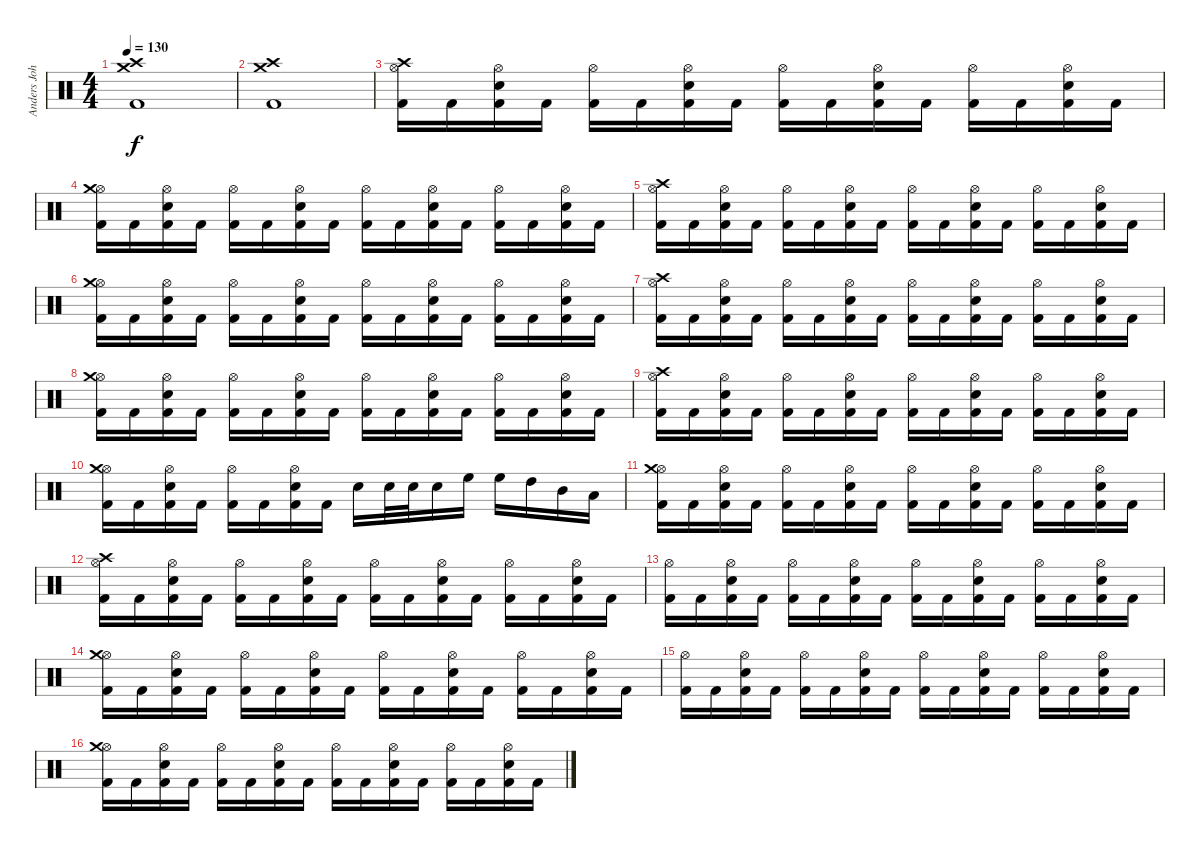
\track ("Anders Johansson - Drums" "Anders Joh") {instrument percussion}
\staff {score}
\articulation defaults
\ts (4 4)
\tempo 130
\clef neutral
\ks c
("Crash high (hit)" "Crash medium (hit)" "Kick (hit) 2").1{dy f} |
("Crash high (hit)" "Crash medium (hit)" "Kick (hit) 2").1 |
("Hi-Hat (open)" "Kick (hit) 2" "Crash high (hit)").16 "Kick (hit) 2".16 ("Hi-Hat (open)" "Kick (hit) 2" "Electric Snare (hit)").16 "Kick (hit) 2".16 ("Hi-Hat (open)" "Kick (hit) 2").16 "Kick (hit) 2".16 ("Hi-Hat (open)" "Kick (hit) 2" "Electric Snare (hit)").16 "Kick (hit) 2".16 ("Hi-Hat (open)" "Kick (hit) 2").16 "Kick (hit) 2".16 ("Hi-Hat (open)" "Kick (hit) 2" "Electric Snare (hit)").16 "Kick (hit) 2".16 ("Hi-Hat (open)" "Kick (hit) 2").16 "Kick (hit) 2".16 ("Hi-Hat (open)" "Kick (hit) 2" "Electric Snare (hit)").16 "Kick (hit) 2".16 |
("Hi-Hat (open)" "Kick (hit) 2" "Crash medium (hit)").16 "Kick (hit) 2".16 ("Hi-Hat (open)" "Kick (hit) 2" "Electric Snare (hit)").16 "Kick (hit) 2".16 ("Hi-Hat (open)" "Kick (hit) 2").16 "Kick (hit) 2".16 ("Hi-Hat (open)" "Kick (hit) 2" "Electric Snare (hit)").16 "Kick (hit) 2".16 ("Hi-Hat (open)" "Kick (hit) 2").16 "Kick (hit) 2".16 ("Hi-Hat (open)" "Kick (hit) 2" "Electric Snare (hit)").16 "Kick (hit) 2".16 ("Hi-Hat (open)" "Kick (hit) 2").16 "Kick (hit) 2".16 ("Hi-Hat (open)" "Kick (hit) 2" "Electric Snare (hit)").16 "Kick (hit) 2".16 |
("Hi-Hat (open)" "Kick (hit) 2" "Crash high (hit)").16 "Kick (hit) 2".16 ("Hi-Hat (open)" "Kick (hit) 2" "Electric Snare (hit)").16 "Kick (hit) 2".16 ("Hi-Hat (open)" "Kick (hit) 2").16 "Kick (hit) 2".16 ("Hi-Hat (open)" "Kick (hit) 2" "Electric Snare (hit)").16 "Kick (hit) 2".16 ("Hi-Hat (open)" "Kick (hit) 2").16 "Kick (hit) 2".16 ("Hi-Hat (open)" "Kick (hit) 2" "Electric Snare (hit)").16 "Kick (hit) 2".16 ("Hi-Hat (open)" "Kick (hit) 2").16 "Kick (hit) 2".16 ("Hi-Hat (open)" "Kick (hit) 2" "Electric Snare (hit)").16 "Kick (hit) 2".16 |
("Hi-Hat (open)" "Kick (hit) 2" "Crash medium (hit)").16 "Kick (hit) 2".16 ("Hi-Hat (open)" "Kick (hit) 2" "Electric Snare (hit)").16 "Kick (hit) 2".16 ("Hi-Hat (open)" "Kick (hit) 2").16 "Kick (hit) 2".16 ("Hi-Hat (open)" "Kick (hit) 2" "Electric Snare (hit)").16 "Kick (hit) 2".16 ("Hi-Hat (open)" "Kick (hit) 2").16 "Kick (hit) 2".16 ("Hi-Hat (open)" "Kick (hit) 2" "Electric Snare (hit)").16 "Kick (hit) 2".16 ("Hi-Hat (open)" "Kick (hit) 2").16 "Kick (hit) 2".16 ("Hi-Hat (open)" "Kick (hit) 2" "Electric Snare (hit)").16 "Kick (hit) 2".16 |
("Hi-Hat (open)" "Kick (hit) 2" "Crash high (hit)").16 "Kick (hit) 2".16 ("Hi-Hat (open)" "Kick (hit) 2" "Electric Snare (hit)").16 "Kick (hit) 2".16 ("Hi-Hat (open)" "Kick (hit) 2").16 "Kick (hit) 2".16 ("Hi-Hat (open)" "Kick (hit) 2" "Electric Snare (hit)").16 "Kick (hit) 2".16 ("Hi-Hat (open)" "Kick (hit) 2").16 "Kick (hit) 2".16 ("Hi-Hat (open)" "Kick (hit) 2" "Electric Snare (hit)").16 "Kick (hit) 2".16 ("Hi-Hat (open)" "Kick (hit) 2").16 "Kick (hit) 2".16 ("Hi-Hat (open)" "Kick (hit) 2" "Electric Snare (hit)").16 "Kick (hit) 2".16 |
("Hi-Hat (open)" "Kick (hit) 2" "Crash medium (hit)").16 "Kick (hit) 2".16 ("Hi-Hat (open)" "Kick (hit) 2" "Electric Snare (hit)").16 "Kick (hit) 2".16 ("Hi-Hat (open)" "Kick (hit) 2").16 "Kick (hit) 2".16 ("Hi-Hat (open)" "Kick (hit) 2" "Electric Snare (hit)").16 "Kick (hit) 2".16 ("Hi-Hat (open)" "Kick (hit) 2").16 "Kick (hit) 2".16 ("Hi-Hat (open)" "Kick (hit) 2" "Electric Snare (hit)").16 "Kick (hit) 2".16 ("Hi-Hat (open)" "Kick (hit) 2").16 "Kick (hit) 2".16 ("Hi-Hat (open)" "Kick (hit) 2" "Electric Snare (hit)").16 "Kick (hit) 2".16 |
("Hi-Hat (open)" "Kick (hit) 2" "Crash high (hit)").16 "Kick (hit) 2".16 ("Hi-Hat (open)" "Kick (hit) 2" "Electric Snare (hit)").16 "Kick (hit) 2".16 ("Hi-Hat (open)" "Kick (hit) 2").16 "Kick (hit) 2".16 ("Hi-Hat (open)" "Kick (hit) 2" "Electric Snare (hit)").16 "Kick (hit) 2".16 ("Hi-Hat (open)" "Kick (hit) 2").16 "Kick (hit) 2".16 ("Hi-Hat (open)" "Kick (hit) 2" "Electric Snare (hit)").16 "Kick (hit) 2".16 ("Hi-Hat (open)" "Kick (hit) 2").16 "Kick (hit) 2".16 ("Hi-Hat (open)" "Kick (hit) 2" "Electric Snare (hit)").16 "Kick (hit) 2".16 |
("Hi-Hat (open)" "Kick (hit) 2" "Crash medium (hit)").16 "Kick (hit) 2".16 ("Hi-Hat (open)" "Kick (hit) 2" "Electric Snare (hit)").16 "Kick (hit) 2".16 ("Hi-Hat (open)" "Kick (hit) 2").16 "Kick (hit) 2".16 ("Hi-Hat (open)" "Kick (hit) 2" "Electric Snare (hit)").16 "Kick (hit) 2".16 "Electric Snare (hit)".16 "Electric Snare (hit)".32 "Electric Snare (hit)".32 "Electric Snare (hit)".16 "High Floor Tom (hit)".16 "High Floor Tom (hit)".16 "High Tom (hit)".16 "Mid Tom (hit)".16 "Low Tom (hit)".16 |
("Hi-Hat (open)" "Kick (hit) 2" "Crash medium (hit)").16 "Kick (hit) 2".16 ("Hi-Hat (open)" "Kick (hit) 2" "Electric Snare (hit)").16 "Kick (hit) 2".16 ("Hi-Hat (open)" "Kick (hit) 2").16 "Kick (hit) 2".16 ("Hi-Hat (open)" "Kick (hit) 2" "Electric Snare (hit)").16 "Kick (hit) 2".16 ("Hi-Hat (open)" "Kick (hit) 2").16 "Kick (hit) 2".16 ("Hi-Hat (open)" "Kick (hit) 2" "Electric Snare (hit)").16 "Kick (hit) 2".16 ("Hi-Hat (open)" "Kick (hit) 2").16 "Kick (hit) 2".16 ("Hi-Hat (open)" "Kick (hit) 2" "Electric Snare (hit)").16 "Kick (hit) 2".16 |
("Hi-Hat (open)" "Kick (hit) 2" "Crash high (hit)").16 "Kick (hit) 2".16 ("Hi-Hat (open)" "Kick (hit) 2" "Electric Snare (hit)").16 "Kick (hit) 2".16 ("Hi-Hat (open)" "Kick (hit) 2").16 "Kick (hit) 2".16 ("Hi-Hat (open)" "Kick (hit) 2" "Electric Snare (hit)").16 "Kick (hit) 2".16 ("Hi-Hat (open)" "Kick (hit) 2").16 "Kick (hit) 2".16 ("Hi-Hat (open)" "Kick (hit) 2" "Electric Snare (hit)").16 "Kick (hit) 2".16 ("Hi-Hat (open)" "Kick (hit) 2").16 "Kick (hit) 2".16 ("Hi-Hat (open)" "Kick (hit) 2" "Electric Snare (hit)").16 "Kick (hit) 2".16 |
("Hi-Hat (open)" "Kick (hit) 2").16 "Kick (hit) 2".16 ("Hi-Hat (open)" "Kick (hit) 2" "Electric Snare (hit)").16 "Kick (hit) 2".16 ("Hi-Hat (open)" "Kick (hit) 2").16 "Kick (hit) 2".16 ("Hi-Hat (open)" "Kick (hit) 2" "Electric Snare (hit)").16 "Kick (hit) 2".16 ("Hi-Hat (open)" "Kick (hit) 2").16 "Kick (hit) 2".16 ("Hi-Hat (open)" "Kick (hit) 2" "Electric Snare (hit)").16 "Kick (hit) 2".16 ("Hi-Hat (open)" "Kick (hit) 2").16 "Kick (hit) 2".16 ("Hi-Hat (open)" "Kick (hit) 2" "Electric Snare (hit)").16 "Kick (hit) 2".16 |
("Hi-Hat (open)" "Kick (hit) 2" "Crash medium (hit)").16 "Kick (hit) 2".16 ("Hi-Hat (open)" "Kick (hit) 2" "Electric Snare (hit)").16 "Kick (hit) 2".16 ("Hi-Hat (open)" "Kick (hit) 2").16 "Kick (hit) 2".16 ("Hi-Hat (open)" "Kick (hit) 2" "Electric Snare (hit)").16 "Kick (hit) 2".16 ("Hi-Hat (open)" "Kick (hit) 2").16 "Kick (hit) 2".16 ("Hi-Hat (open)" "Kick (hit) 2" "Electric Snare (hit)").16 "Kick (hit) 2".16 ("Hi-Hat (open)" "Kick (hit) 2").16 "Kick (hit) 2".16 ("Hi-Hat (open)" "Kick (hit) 2" "Electric Snare (hit)").16 "Kick (hit) 2".16 |
("Hi-Hat (open)" "Kick (hit) 2").16 "Kick (hit) 2".16 ("Hi-Hat (open)" "Kick (hit) 2" "Electric Snare (hit)").16 "Kick (hit) 2".16 ("Hi-Hat (open)" "Kick (hit) 2").16 "Kick (hit) 2".16 ("Hi-Hat (open)" "Kick (hit) 2" "Electric Snare (hit)").16 "Kick (hit) 2".16 ("Hi-Hat (open)" "Kick (hit) 2").16 "Kick (hit) 2".16 ("Hi-Hat (open)" "Kick (hit) 2" "Electric Snare (hit)").16 "Kick (hit) 2".16 ("Hi-Hat (open)" "Kick (hit) 2").16 "Kick (hit) 2".16 ("Hi-Hat (open)" "Kick (hit) 2" "Electric Snare (hit)").16 "Kick (hit) 2".16 |
("Hi-Hat (open)" "Kick (hit) 2" "Crash medium (hit)").16 "Kick (hit) 2".16 ("Hi-Hat (open)" "Kick (hit) 2" "Electric Snare (hit)").16 "Kick (hit) 2".16 ("Hi-Hat (open)" "Kick (hit) 2").16 "Kick (hit) 2".16 ("Hi-Hat (open)" "Kick (hit) 2" "Electric Snare (hit)").16 "Kick (hit) 2".16 ("Hi-Hat (open)" "Kick (hit) 2").16 "Kick (hit) 2".16 ("Hi-Hat (open)" "Kick (hit) 2" "Electric Snare (hit)").16 "Kick (hit) 2".16 ("Hi-Hat (open)" "Kick (hit) 2").16 "Kick (hit) 2".16 ("Hi-Hat (open)" "Kick (hit) 2" "Electric Snare (hit)").16 "Kick (hit) 2".16
